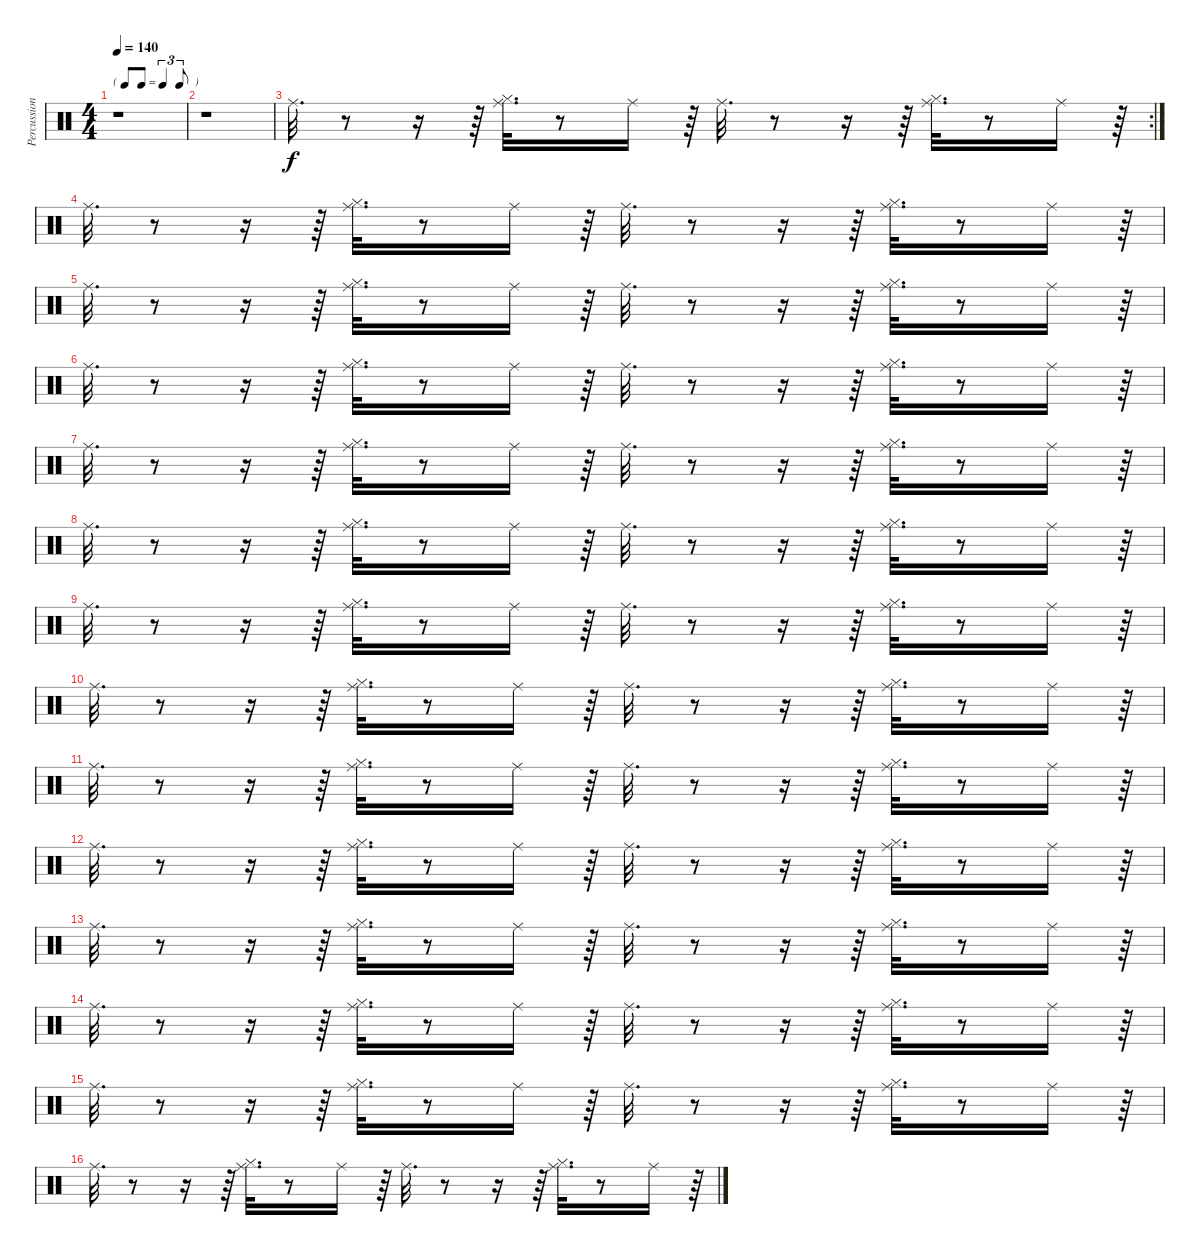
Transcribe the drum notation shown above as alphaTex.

\track ("Percussions" "Percussion") {instrument percussion}
\staff {score}
\articulation defaults
\ts (4 4)
\tf triplet8th
\tempo 140
\clef neutral
\ks c
r.1{dy f} |
r.1 |
\rc 2 "Ride (middle)".32{d}
r.8 r.16 r.64 ("Hi-Hat (closed)" "Ride (middle)").32{d} r.8 "Ride (middle)".16 r.64 "Ride (middle)".32{d} r.8 r.16 r.64 ("Hi-Hat (closed)" "Ride (middle)").32{d} r.8 "Ride (middle)".16 r.64 |
"Ride (middle)".32{d} r.8 r.16 r.64 ("Hi-Hat (closed)" "Ride (middle)").32{d} r.8 "Ride (middle)".16 r.64 "Ride (middle)".32{d} r.8 r.16 r.64 ("Hi-Hat (closed)" "Ride (middle)").32{d} r.8 "Ride (middle)".16 r.64 |
"Ride (middle)".32{d} r.8 r.16 r.64 ("Hi-Hat (closed)" "Ride (middle)").32{d} r.8 "Ride (middle)".16 r.64 "Ride (middle)".32{d} r.8 r.16 r.64 ("Hi-Hat (closed)" "Ride (middle)").32{d} r.8 "Ride (middle)".16 r.64 |
"Ride (middle)".32{d} r.8 r.16 r.64 ("Hi-Hat (closed)" "Ride (middle)").32{d} r.8 "Ride (middle)".16 r.64 "Ride (middle)".32{d} r.8 r.16 r.64 ("Hi-Hat (closed)" "Ride (middle)").32{d} r.8 "Ride (middle)".16 r.64 |
"Ride (middle)".32{d} r.8 r.16 r.64 ("Hi-Hat (closed)" "Ride (middle)").32{d} r.8 "Ride (middle)".16 r.64 "Ride (middle)".32{d} r.8 r.16 r.64 ("Hi-Hat (closed)" "Ride (middle)").32{d} r.8 "Ride (middle)".16 r.64 |
"Ride (middle)".32{d} r.8 r.16 r.64 ("Hi-Hat (closed)" "Ride (middle)").32{d} r.8 "Ride (middle)".16 r.64 "Ride (middle)".32{d} r.8 r.16 r.64 ("Hi-Hat (closed)" "Ride (middle)").32{d} r.8 "Ride (middle)".16 r.64 |
"Ride (middle)".32{d} r.8 r.16 r.64 ("Hi-Hat (closed)" "Ride (middle)").32{d} r.8 "Ride (middle)".16 r.64 "Ride (middle)".32{d} r.8 r.16 r.64 ("Hi-Hat (closed)" "Ride (middle)").32{d} r.8 "Ride (middle)".16 r.64 |
"Ride (middle)".32{d} r.8 r.16 r.64 ("Hi-Hat (closed)" "Ride (middle)").32{d} r.8 "Ride (middle)".16 r.64 "Ride (middle)".32{d} r.8 r.16 r.64 ("Hi-Hat (closed)" "Ride (middle)").32{d} r.8 "Ride (middle)".16 r.64 |
"Ride (middle)".32{d} r.8 r.16 r.64 ("Hi-Hat (closed)" "Ride (middle)").32{d} r.8 "Ride (middle)".16 r.64 "Ride (middle)".32{d} r.8 r.16 r.64 ("Hi-Hat (closed)" "Ride (middle)").32{d} r.8 "Ride (middle)".16 r.64 |
"Ride (middle)".32{d} r.8 r.16 r.64 ("Hi-Hat (closed)" "Ride (middle)").32{d} r.8 "Ride (middle)".16 r.64 "Ride (middle)".32{d} r.8 r.16 r.64 ("Hi-Hat (closed)" "Ride (middle)").32{d} r.8 "Ride (middle)".16 r.64 |
"Ride (middle)".32{d} r.8 r.16 r.64 ("Hi-Hat (closed)" "Ride (middle)").32{d} r.8 "Ride (middle)".16 r.64 "Ride (middle)".32{d} r.8 r.16 r.64 ("Hi-Hat (closed)" "Ride (middle)").32{d} r.8 "Ride (middle)".16 r.64 |
"Ride (middle)".32{d} r.8 r.16 r.64 ("Hi-Hat (closed)" "Ride (middle)").32{d} r.8 "Ride (middle)".16 r.64 "Ride (middle)".32{d} r.8 r.16 r.64 ("Hi-Hat (closed)" "Ride (middle)").32{d} r.8 "Ride (middle)".16 r.64 |
"Ride (middle)".32{d} r.8 r.16 r.64 ("Hi-Hat (closed)" "Ride (middle)").32{d} r.8 "Ride (middle)".16 r.64 "Ride (middle)".32{d} r.8 r.16 r.64 ("Hi-Hat (closed)" "Ride (middle)").32{d} r.8 "Ride (middle)".16 r.64 |
"Ride (middle)".32{d} r.8 r.16 r.64 ("Hi-Hat (closed)" "Ride (middle)").32{d} r.8 "Ride (middle)".16 r.64 "Ride (middle)".32{d} r.8 r.16 r.64 ("Hi-Hat (closed)" "Ride (middle)").32{d} r.8 "Ride (middle)".16 r.64
